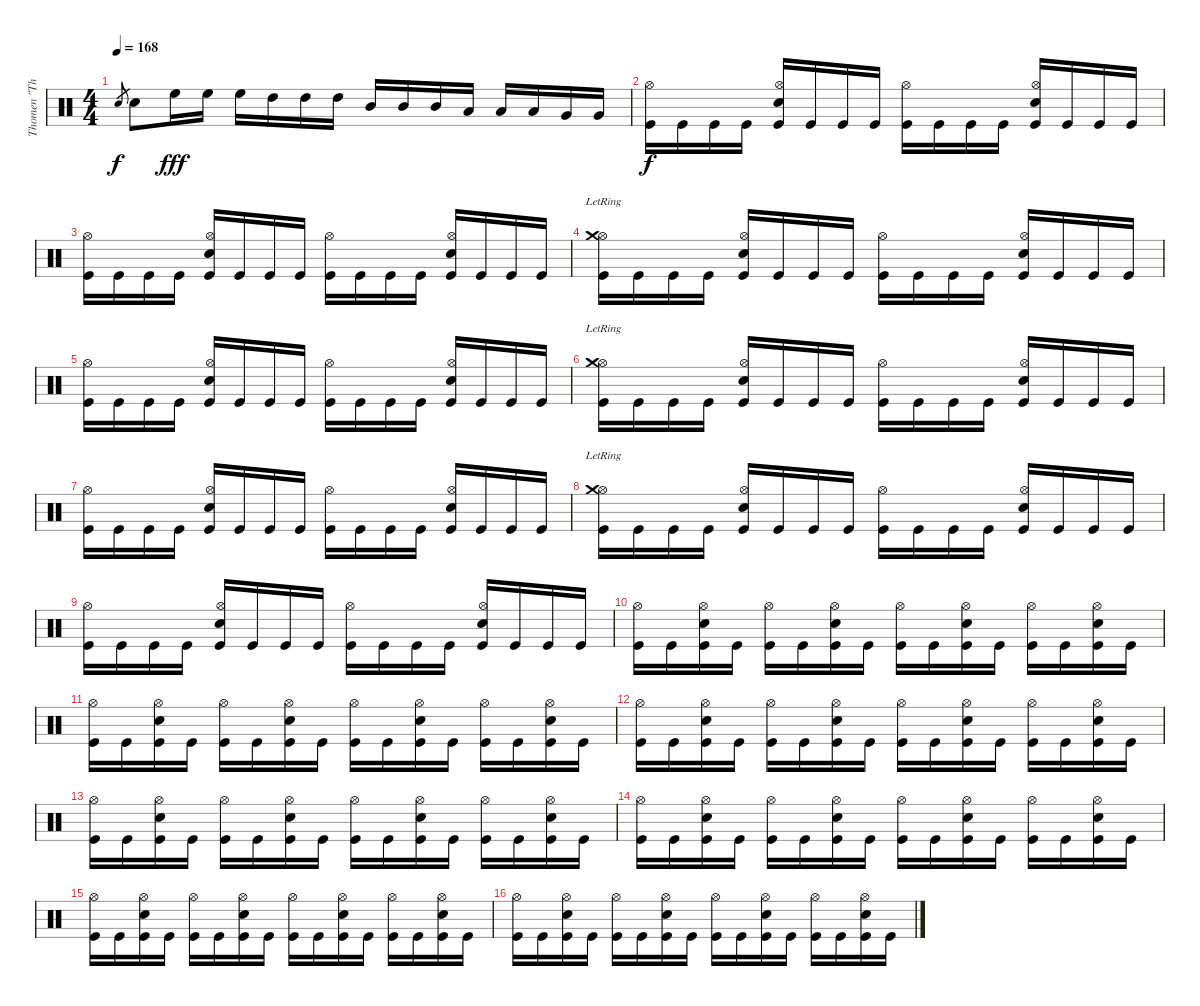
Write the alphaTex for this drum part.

\track ("Thomen \"The Omen\" Stauch" "Thomen \"Th") {instrument percussion}
\staff {score}
\articulation defaults
\ts (4 4)
\tempo 168
\clef neutral
\ks c "Snare (hit) 2".8{gr dy f} "Snare (hit) 2".8 "High Floor Tom (hit)".16{dy fff} "High Floor Tom (hit)".16 "High Floor Tom (hit)".16 "High Tom (hit)".16 "High Tom (hit)".16 "High Tom (hit)".16 "Mid Tom (hit)".16 "Mid Tom (hit)".16 "Mid Tom (hit)".16 "Low Tom (hit)".16 "Low Tom (hit)".16 "Low Tom (hit)".16 "Very Low Tom (hit)".16 "Very Low Tom (hit)".16
|
("Hi-Hat (open)" "Kick (hit)").16{dy f} "Kick (hit)".16 "Kick (hit)".16 "Kick (hit)".16 ("Hi-Hat (open)" "Snare (hit) 2" "Kick (hit)").16 "Kick (hit)".16 "Kick (hit)".16 "Kick (hit)".16 ("Hi-Hat (open)" "Kick (hit)").16 "Kick (hit)".16 "Kick (hit)".16 "Kick (hit)".16 ("Hi-Hat (open)" "Snare (hit) 2" "Kick (hit)").16 "Kick (hit)".16 "Kick (hit)".16 "Kick (hit)".16 |
("Hi-Hat (open)" "Kick (hit)").16 "Kick (hit)".16 "Kick (hit)".16 "Kick (hit)".16 ("Hi-Hat (open)" "Snare (hit) 2" "Kick (hit)").16 "Kick (hit)".16 "Kick (hit)".16 "Kick (hit)".16 ("Hi-Hat (open)" "Kick (hit)").16 "Kick (hit)".16 "Kick (hit)".16 "Kick (hit)".16 ("Hi-Hat (open)" "Snare (hit) 2" "Kick (hit)").16 "Kick (hit)".16 "Kick (hit)".16 "Kick (hit)".16 |
("Hi-Hat (open)" "Crash medium (hit)"{lr} "Kick (hit)").16 "Kick (hit)".16 "Kick (hit)".16 "Kick (hit)".16 ("Hi-Hat (open)" "Snare (hit) 2" "Kick (hit)").16 "Kick (hit)".16 "Kick (hit)".16 "Kick (hit)".16 ("Hi-Hat (open)" "Kick (hit)").16 "Kick (hit)".16 "Kick (hit)".16 "Kick (hit)".16 ("Hi-Hat (open)" "Snare (hit) 2" "Kick (hit)").16 "Kick (hit)".16 "Kick (hit)".16 "Kick (hit)".16 |
("Hi-Hat (open)" "Kick (hit)").16 "Kick (hit)".16 "Kick (hit)".16 "Kick (hit)".16 ("Hi-Hat (open)" "Snare (hit) 2" "Kick (hit)").16 "Kick (hit)".16 "Kick (hit)".16 "Kick (hit)".16 ("Hi-Hat (open)" "Kick (hit)").16 "Kick (hit)".16 "Kick (hit)".16 "Kick (hit)".16 ("Hi-Hat (open)" "Snare (hit) 2" "Kick (hit)").16 "Kick (hit)".16 "Kick (hit)".16 "Kick (hit)".16 |
("Hi-Hat (open)" "Crash medium (hit)"{lr} "Kick (hit)").16 "Kick (hit)".16 "Kick (hit)".16 "Kick (hit)".16 ("Hi-Hat (open)" "Snare (hit) 2" "Kick (hit)").16 "Kick (hit)".16 "Kick (hit)".16 "Kick (hit)".16 ("Hi-Hat (open)" "Kick (hit)").16 "Kick (hit)".16 "Kick (hit)".16 "Kick (hit)".16 ("Hi-Hat (open)" "Snare (hit) 2" "Kick (hit)").16 "Kick (hit)".16 "Kick (hit)".16 "Kick (hit)".16 |
("Hi-Hat (open)" "Kick (hit)").16 "Kick (hit)".16 "Kick (hit)".16 "Kick (hit)".16 ("Hi-Hat (open)" "Snare (hit) 2" "Kick (hit)").16 "Kick (hit)".16 "Kick (hit)".16 "Kick (hit)".16 ("Hi-Hat (open)" "Kick (hit)").16 "Kick (hit)".16 "Kick (hit)".16 "Kick (hit)".16 ("Hi-Hat (open)" "Snare (hit) 2" "Kick (hit)").16 "Kick (hit)".16 "Kick (hit)".16 "Kick (hit)".16 |
("Hi-Hat (open)" "Crash medium (hit)"{lr} "Kick (hit)").16 "Kick (hit)".16 "Kick (hit)".16 "Kick (hit)".16 ("Hi-Hat (open)" "Snare (hit) 2" "Kick (hit)").16 "Kick (hit)".16 "Kick (hit)".16 "Kick (hit)".16 ("Hi-Hat (open)" "Kick (hit)").16 "Kick (hit)".16 "Kick (hit)".16 "Kick (hit)".16 ("Hi-Hat (open)" "Snare (hit) 2" "Kick (hit)").16 "Kick (hit)".16 "Kick (hit)".16 "Kick (hit)".16 |
("Hi-Hat (open)" "Kick (hit)").16 "Kick (hit)".16 "Kick (hit)".16 "Kick (hit)".16 ("Hi-Hat (open)" "Snare (hit) 2" "Kick (hit)").16 "Kick (hit)".16 "Kick (hit)".16 "Kick (hit)".16 ("Hi-Hat (open)" "Kick (hit)").16 "Kick (hit)".16 "Kick (hit)".16 "Kick (hit)".16 ("Hi-Hat (open)" "Snare (hit) 2" "Kick (hit)").16 "Kick (hit)".16 "Kick (hit)".16 "Kick (hit)".16 |
("Hi-Hat (open)" "Kick (hit)").16 "Kick (hit)".16 ("Hi-Hat (open)" "Snare (hit) 2" "Kick (hit)").16 "Kick (hit)".16 ("Hi-Hat (open)" "Kick (hit)").16 "Kick (hit)".16 ("Hi-Hat (open)" "Snare (hit) 2" "Kick (hit)").16 "Kick (hit)".16 ("Hi-Hat (open)" "Kick (hit)").16 "Kick (hit)".16 ("Hi-Hat (open)" "Snare (hit) 2" "Kick (hit)").16 "Kick (hit)".16 ("Hi-Hat (open)" "Kick (hit)").16 "Kick (hit)".16 ("Hi-Hat (open)" "Snare (hit) 2" "Kick (hit)").16 "Kick (hit)".16 |
("Hi-Hat (open)" "Kick (hit)").16 "Kick (hit)".16 ("Hi-Hat (open)" "Snare (hit) 2" "Kick (hit)").16 "Kick (hit)".16 ("Hi-Hat (open)" "Kick (hit)").16 "Kick (hit)".16 ("Hi-Hat (open)" "Snare (hit) 2" "Kick (hit)").16 "Kick (hit)".16 ("Hi-Hat (open)" "Kick (hit)").16 "Kick (hit)".16 ("Hi-Hat (open)" "Snare (hit) 2" "Kick (hit)").16 "Kick (hit)".16 ("Hi-Hat (open)" "Kick (hit)").16 "Kick (hit)".16 ("Hi-Hat (open)" "Snare (hit) 2" "Kick (hit)").16 "Kick (hit)".16 |
("Hi-Hat (open)" "Kick (hit)").16 "Kick (hit)".16 ("Hi-Hat (open)" "Snare (hit) 2" "Kick (hit)").16 "Kick (hit)".16 ("Hi-Hat (open)" "Kick (hit)").16 "Kick (hit)".16 ("Hi-Hat (open)" "Snare (hit) 2" "Kick (hit)").16 "Kick (hit)".16 ("Hi-Hat (open)" "Kick (hit)").16 "Kick (hit)".16 ("Hi-Hat (open)" "Snare (hit) 2" "Kick (hit)").16 "Kick (hit)".16 ("Hi-Hat (open)" "Kick (hit)").16 "Kick (hit)".16 ("Hi-Hat (open)" "Snare (hit) 2" "Kick (hit)").16 "Kick (hit)".16 |
("Hi-Hat (open)" "Kick (hit)").16 "Kick (hit)".16 ("Hi-Hat (open)" "Snare (hit) 2" "Kick (hit)").16 "Kick (hit)".16 ("Hi-Hat (open)" "Kick (hit)").16 "Kick (hit)".16 ("Hi-Hat (open)" "Snare (hit) 2" "Kick (hit)").16 "Kick (hit)".16 ("Hi-Hat (open)" "Kick (hit)").16 "Kick (hit)".16 ("Hi-Hat (open)" "Snare (hit) 2" "Kick (hit)").16 "Kick (hit)".16 ("Hi-Hat (open)" "Kick (hit)").16 "Kick (hit)".16 ("Hi-Hat (open)" "Snare (hit) 2" "Kick (hit)").16 "Kick (hit)".16 |
("Hi-Hat (open)" "Kick (hit)").16 "Kick (hit)".16 ("Hi-Hat (open)" "Snare (hit) 2" "Kick (hit)").16 "Kick (hit)".16 ("Hi-Hat (open)" "Kick (hit)").16 "Kick (hit)".16 ("Hi-Hat (open)" "Snare (hit) 2" "Kick (hit)").16 "Kick (hit)".16 ("Hi-Hat (open)" "Kick (hit)").16 "Kick (hit)".16 ("Hi-Hat (open)" "Snare (hit) 2" "Kick (hit)").16 "Kick (hit)".16 ("Hi-Hat (open)" "Kick (hit)").16 "Kick (hit)".16 ("Hi-Hat (open)" "Snare (hit) 2" "Kick (hit)").16 "Kick (hit)".16 |
("Hi-Hat (open)" "Kick (hit)").16 "Kick (hit)".16 ("Hi-Hat (open)" "Snare (hit) 2" "Kick (hit)").16 "Kick (hit)".16 ("Hi-Hat (open)" "Kick (hit)").16 "Kick (hit)".16 ("Hi-Hat (open)" "Snare (hit) 2" "Kick (hit)").16 "Kick (hit)".16 ("Hi-Hat (open)" "Kick (hit)").16 "Kick (hit)".16 ("Hi-Hat (open)" "Snare (hit) 2" "Kick (hit)").16 "Kick (hit)".16 ("Hi-Hat (open)" "Kick (hit)").16 "Kick (hit)".16 ("Hi-Hat (open)" "Snare (hit) 2" "Kick (hit)").16 "Kick (hit)".16 |
("Hi-Hat (open)" "Kick (hit)").16 "Kick (hit)".16 ("Hi-Hat (open)" "Snare (hit) 2" "Kick (hit)").16 "Kick (hit)".16 ("Hi-Hat (open)" "Kick (hit)").16 "Kick (hit)".16 ("Hi-Hat (open)" "Snare (hit) 2" "Kick (hit)").16 "Kick (hit)".16 ("Hi-Hat (open)" "Kick (hit)").16 "Kick (hit)".16 ("Hi-Hat (open)" "Snare (hit) 2" "Kick (hit)").16 "Kick (hit)".16 ("Hi-Hat (open)" "Kick (hit)").16 "Kick (hit)".16 ("Hi-Hat (open)" "Snare (hit) 2" "Kick (hit)").16 "Kick (hit)".16
